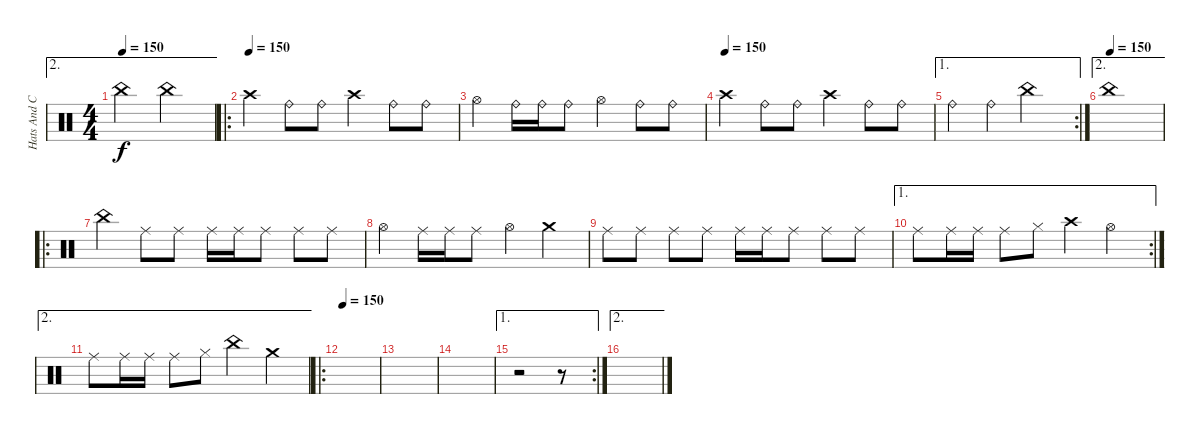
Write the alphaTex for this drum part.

\track ("Hats And Cymbals" "Hats And C") {instrument percussion}
\staff {score}
\articulation defaults
\ae 2
\ts (4 4)
\tempo 150
\clef neutral
\ks c "China (hit)".2{dy f} "China (hit)".2
|
\ro
\tempo (150)
"Crash high (hit)".4 "Ride (bell)".8 "Ride (bell)".8 "Crash high (hit)".4 "Ride (bell)".8 "Ride (bell)".8 |
"Hi-Hat (open)".4 "Ride (bell)".16 "Ride (bell)".16 "Ride (bell)".8 "Hi-Hat (open)".4 "Ride (bell)".8 "Ride (bell)".8 |
\tempo (150)
"Crash high (hit)".4 "Ride (bell)".8 "Ride (bell)".8 "Crash high (hit)".4 "Ride (bell)".8 "Ride (bell)".8 |
\ae 1
\rc 2 "Ride (bell)".4 "Ride (bell)".4 "China (hit)".2
|
\ae 2
\tempo (150)
"China (hit)".1 |
\ro "China (hit)".4 "Ride (middle)".8 "Ride (middle)".8 "Ride (middle)".16 "Ride (middle)".16 "Ride (middle)".8 "Ride (middle)".8 "Ride (middle)".8
|
"Hi-Hat (open)".4 "Ride (middle)".16 "Ride (middle)".16 "Ride (middle)".8 "Hi-Hat (open)".4 "Crash medium (hit)".4 |
"Ride (middle)".8 "Ride (middle)".8 "Ride (middle)".8 "Ride (middle)".8 "Ride (middle)".16 "Ride (middle)".16 "Ride (middle)".8 "Ride (middle)".8 "Ride (middle)".8 |
\ae 1
\rc 2 "Ride (middle)".8 "Ride (middle)".16 "Ride (middle)".16 "Ride (middle)".8 "Hi-Hat (closed)".8 "Crash high (hit)".4 "Hi-Hat (open)".4
|
\ae 2 "Ride (middle)".8 "Ride (middle)".16 "Ride (middle)".16 "Ride (middle)".8 "Hi-Hat (closed)".8 "China (hit)".4 "Crash medium (hit)".4
|
\ro
\tempo 150
|
|
|
\ae 1
\rc 2
r.2 r.8 |
\ae 2
